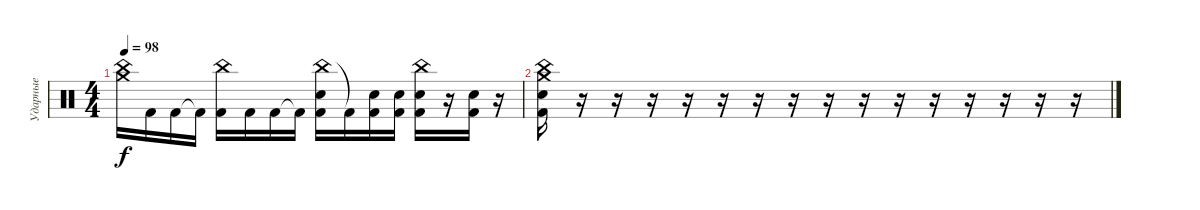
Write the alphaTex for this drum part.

\track ("Ударные" "Ударные") {instrument percussion}
\staff {score}
\articulation defaults
\ts (4 4)
\tempo 98
\clef neutral
\ks c
("China (hit)" "Crash medium (hit)").16{dy f} "Kick (hit) 2".16 "Kick (hit) 2".16 "Kick (hit) 2"{t}.16 ("China (hit)" "Kick (hit) 2").16 "Kick (hit) 2".16 "Kick (hit) 2".16 "Kick (hit) 2"{t}.16 ("China (hit)" "Electric Snare (hit)" "Kick (hit) 2").16 "Kick (hit) 2"{t}.16 ("Electric Snare (hit)" "Kick (hit) 2").16 ("Electric Snare (hit)" "Kick (hit) 2").16 ("China (hit)" "Electric Snare (hit)" "Kick (hit) 2").16 r.16 ("Electric Snare (hit)" "Kick (hit) 2").16 r.16 |
("Crash medium (hit)" "China (hit)" "Electric Snare (hit)" "Kick (hit) 2").16 r.16 r.16 r.16 r.16 r.16 r.16 r.16 r.16 r.16 r.16 r.16 r.16 r.16 r.16 r.16
